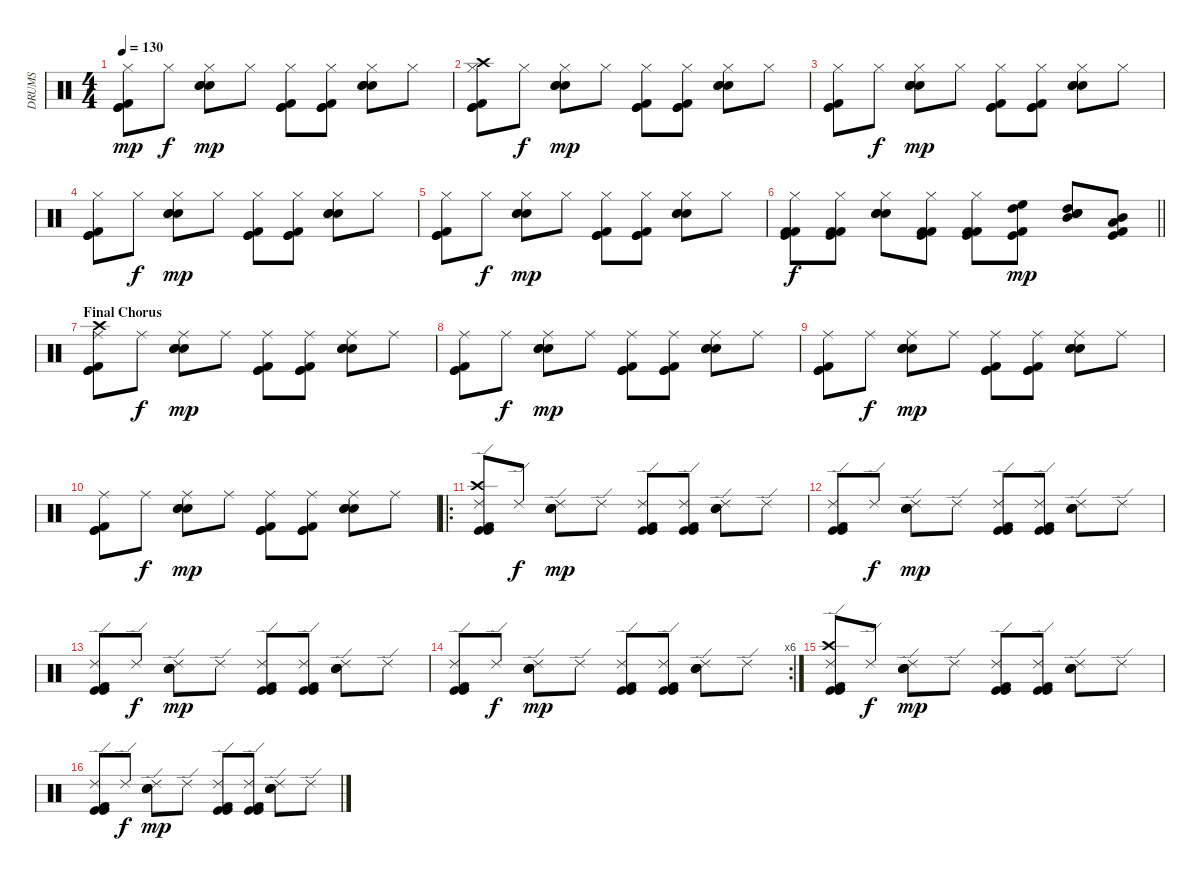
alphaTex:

\track ("DRUMS" "DRUMS") {instrument percussion}
\staff {score}
\articulation defaults
\ts (4 4)
\tempo 130
\clef neutral
\ks c
("Hi-Hat (closed)" "Kick (hit) 2" "Kick (hit)" "Kick (hit)").8{dy mp} "Hi-Hat (closed)".8{dy f} ("Hi-Hat (closed)" "Electric Snare (hit)" "Snare (hit) 2" "Snare (hit) 2").8{dy mp} "Hi-Hat (closed)".8 ("Hi-Hat (closed)" "Kick (hit) 2" "Kick (hit)" "Kick (hit)").8 ("Hi-Hat (closed)" "Kick (hit) 2" "Kick (hit)" "Kick (hit)").8 ("Hi-Hat (closed)" "Electric Snare (hit)" "Snare (hit) 2" "Snare (hit) 2").8 "Hi-Hat (closed)".8 |
("Hi-Hat (closed)" "Kick (hit) 2" "Kick (hit)" "Kick (hit)" "Crash high (hit)").8 "Hi-Hat (closed)".8{dy f} ("Hi-Hat (closed)" "Electric Snare (hit)" "Snare (hit) 2" "Snare (hit) 2").8{dy mp} "Hi-Hat (closed)".8 ("Hi-Hat (closed)" "Kick (hit) 2" "Kick (hit)" "Kick (hit)").8 ("Hi-Hat (closed)" "Kick (hit) 2" "Kick (hit)" "Kick (hit)").8 ("Hi-Hat (closed)" "Electric Snare (hit)" "Snare (hit) 2" "Snare (hit) 2").8 "Hi-Hat (closed)".8 |
("Hi-Hat (closed)" "Kick (hit) 2" "Kick (hit)" "Kick (hit)").8 "Hi-Hat (closed)".8{dy f} ("Hi-Hat (closed)" "Electric Snare (hit)" "Snare (hit) 2" "Snare (hit) 2").8{dy mp} "Hi-Hat (closed)".8 ("Hi-Hat (closed)" "Kick (hit) 2" "Kick (hit)" "Kick (hit)").8 ("Hi-Hat (closed)" "Kick (hit) 2" "Kick (hit)" "Kick (hit)").8 ("Hi-Hat (closed)" "Electric Snare (hit)" "Snare (hit) 2" "Snare (hit) 2").8 "Hi-Hat (closed)".8 |
("Hi-Hat (closed)" "Kick (hit) 2" "Kick (hit)" "Kick (hit)").8 "Hi-Hat (closed)".8{dy f} ("Hi-Hat (closed)" "Electric Snare (hit)" "Snare (hit) 2" "Snare (hit) 2").8{dy mp} "Hi-Hat (closed)".8 ("Hi-Hat (closed)" "Kick (hit) 2" "Kick (hit)" "Kick (hit)").8 ("Hi-Hat (closed)" "Kick (hit) 2" "Kick (hit)" "Kick (hit)").8 ("Hi-Hat (closed)" "Electric Snare (hit)" "Snare (hit) 2" "Snare (hit) 2").8 "Hi-Hat (closed)".8 |
("Hi-Hat (closed)" "Kick (hit) 2" "Kick (hit)" "Kick (hit)").8 "Hi-Hat (closed)".8{dy f} ("Hi-Hat (closed)" "Electric Snare (hit)" "Snare (hit) 2" "Snare (hit) 2").8{dy mp} "Hi-Hat (closed)".8 ("Hi-Hat (closed)" "Kick (hit) 2" "Kick (hit)" "Kick (hit)").8 ("Hi-Hat (closed)" "Kick (hit) 2" "Kick (hit)" "Kick (hit)").8 ("Hi-Hat (closed)" "Electric Snare (hit)" "Snare (hit) 2" "Snare (hit) 2").8 "Hi-Hat (closed)".8 |
\barLineRight lightlight
("Hi-Hat (closed)" "Kick (hit) 2" "Kick (hit)" "Kick (hit) 2").8{dy f} ("Hi-Hat (closed)" "Kick (hit) 2" "Kick (hit)" "Kick (hit) 2").8 ("Hi-Hat (closed)" "Snare (hit) 2" "Electric Snare (hit)" "Snare (hit) 2").8 ("Hi-Hat (closed)" "Kick (hit) 2" "Kick (hit)" "Kick (hit) 2").8 ("Hi-Hat (closed)" "Kick (hit) 2" "Kick (hit)" "Kick (hit) 2").8 ("Kick (hit) 2" "Kick (hit)" "High Floor Tom (hit)" "High Tom (hit)").8{dy mp volume 10} ("Snare (hit) 2" "Electric Snare (hit)" "High Tom (hit)" "Mid Tom (hit)").8 ("Kick (hit) 2" "Kick (hit)" "Mid Tom (hit)" "Low Tom (hit)").8 |
\section ("" "Final Chorus")
("Ride (middle)" "Kick (hit) 2" "Kick (hit)" "Kick (hit)" "Crash high (hit)").8{volume 8} "Ride (middle)".8{dy f} ("Ride (middle)" "Electric Snare (hit)" "Snare (hit) 2" "Snare (hit) 2").8{dy mp} "Ride (middle)".8 ("Ride (middle)" "Kick (hit) 2" "Kick (hit)" "Kick (hit)").8 ("Ride (middle)" "Kick (hit) 2" "Kick (hit)" "Kick (hit)").8 ("Ride (middle)" "Electric Snare (hit)" "Snare (hit) 2" "Snare (hit) 2").8 "Ride (middle)".8 |
("Ride (middle)" "Kick (hit) 2" "Kick (hit)" "Kick (hit)").8 "Ride (middle)".8{dy f} ("Ride (middle)" "Electric Snare (hit)" "Snare (hit) 2" "Snare (hit) 2").8{dy mp} "Ride (middle)".8 ("Ride (middle)" "Kick (hit) 2" "Kick (hit)" "Kick (hit)").8 ("Ride (middle)" "Kick (hit) 2" "Kick (hit)" "Kick (hit)").8 ("Ride (middle)" "Electric Snare (hit)" "Snare (hit) 2" "Snare (hit) 2").8 "Ride (middle)".8 |
("Ride (middle)" "Kick (hit) 2" "Kick (hit)" "Kick (hit)").8 "Ride (middle)".8{dy f} ("Ride (middle)" "Electric Snare (hit)" "Snare (hit) 2" "Snare (hit) 2").8{dy mp} "Ride (middle)".8 ("Ride (middle)" "Kick (hit) 2" "Kick (hit)" "Kick (hit)").8 ("Ride (middle)" "Kick (hit) 2" "Kick (hit)" "Kick (hit)").8 ("Ride (middle)" "Electric Snare (hit)" "Snare (hit) 2" "Snare (hit) 2").8 "Ride (middle)".8 |
("Ride (middle)" "Kick (hit) 2" "Kick (hit)" "Kick (hit)").8 "Ride (middle)".8{dy f} ("Ride (middle)" "Electric Snare (hit)" "Snare (hit) 2" "Snare (hit) 2").8{dy mp} "Ride (middle)".8 ("Ride (middle)" "Kick (hit) 2" "Kick (hit)" "Kick (hit)").8 ("Ride (middle)" "Kick (hit) 2" "Kick (hit)" "Kick (hit)").8 ("Ride (middle)" "Electric Snare (hit)" "Snare (hit) 2" "Snare (hit) 2").8 "Ride (middle)".8 |
\ro
("Ride (edge) 2" "Kick (hit) 2" "Kick (hit)" "Kick (hit)" "Crash high (hit)").8 "Ride (edge) 2".8{dy f} ("Ride (edge) 2" "Electric Snare (hit)" "Snare (hit) 2" "Snare (hit) 2").8{dy mp} "Ride (edge) 2".8 ("Ride (edge) 2" "Kick (hit) 2" "Kick (hit)" "Kick (hit)").8 ("Ride (edge) 2" "Kick (hit) 2" "Kick (hit)" "Kick (hit)").8 ("Ride (edge) 2" "Electric Snare (hit)" "Snare (hit) 2" "Snare (hit) 2").8 "Ride (edge) 2".8 |
("Ride (edge) 2" "Kick (hit) 2" "Kick (hit)" "Kick (hit)").8 "Ride (edge) 2".8{dy f} ("Ride (edge) 2" "Electric Snare (hit)" "Snare (hit) 2" "Snare (hit) 2").8{dy mp} "Ride (edge) 2".8 ("Ride (edge) 2" "Kick (hit) 2" "Kick (hit)" "Kick (hit)").8 ("Ride (edge) 2" "Kick (hit) 2" "Kick (hit)" "Kick (hit)").8 ("Ride (edge) 2" "Electric Snare (hit)" "Snare (hit) 2" "Snare (hit) 2").8 "Ride (edge) 2".8 |
("Ride (edge) 2" "Kick (hit) 2" "Kick (hit)" "Kick (hit)").8 "Ride (edge) 2".8{dy f} ("Ride (edge) 2" "Electric Snare (hit)" "Snare (hit) 2" "Snare (hit) 2").8{dy mp} "Ride (edge) 2".8 ("Ride (edge) 2" "Kick (hit) 2" "Kick (hit)" "Kick (hit)").8 ("Ride (edge) 2" "Kick (hit) 2" "Kick (hit)" "Kick (hit)").8 ("Ride (edge) 2" "Electric Snare (hit)" "Snare (hit) 2" "Snare (hit) 2").8 "Ride (edge) 2".8 |
\rc 6
("Ride (edge) 2" "Kick (hit) 2" "Kick (hit)" "Kick (hit)").8 "Ride (edge) 2".8{dy f} ("Ride (edge) 2" "Electric Snare (hit)" "Snare (hit) 2" "Snare (hit) 2").8{dy mp} "Ride (edge) 2".8 ("Ride (edge) 2" "Kick (hit) 2" "Kick (hit)" "Kick (hit)").8 ("Ride (edge) 2" "Kick (hit) 2" "Kick (hit)" "Kick (hit)").8 ("Ride (edge) 2" "Electric Snare (hit)" "Snare (hit) 2" "Snare (hit) 2").8 "Ride (edge) 2".8 |
("Ride (edge) 2" "Kick (hit) 2" "Kick (hit)" "Kick (hit)" "Crash high (hit)").8 "Ride (edge) 2".8{dy f} ("Ride (edge) 2" "Electric Snare (hit)" "Snare (hit) 2" "Snare (hit) 2").8{dy mp} "Ride (edge) 2".8 ("Ride (edge) 2" "Kick (hit) 2" "Kick (hit)" "Kick (hit)").8 ("Ride (edge) 2" "Kick (hit) 2" "Kick (hit)" "Kick (hit)").8 ("Ride (edge) 2" "Electric Snare (hit)" "Snare (hit) 2" "Snare (hit) 2").8 "Ride (edge) 2".8 |
("Ride (edge) 2" "Kick (hit) 2" "Kick (hit)" "Kick (hit)").8 "Ride (edge) 2".8{dy f} ("Ride (edge) 2" "Electric Snare (hit)" "Snare (hit) 2" "Snare (hit) 2").8{dy mp} "Ride (edge) 2".8 ("Ride (edge) 2" "Kick (hit) 2" "Kick (hit)" "Kick (hit)").8 ("Ride (edge) 2" "Kick (hit) 2" "Kick (hit)" "Kick (hit)").8 ("Ride (edge) 2" "Electric Snare (hit)" "Snare (hit) 2" "Snare (hit) 2").8 "Ride (edge) 2".8
